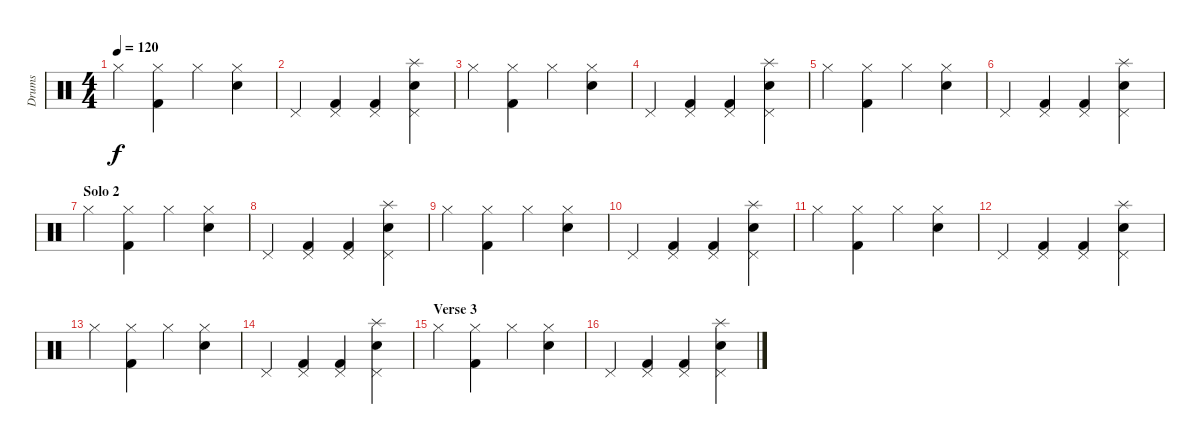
\track ("Drums" "Drums") {instrument percussion}
\staff {score}
\articulation defaults
\ts (4 4)
\tempo 120
\clef neutral
\ks c "Hi-Hat (closed)".4{dy f}
("Hi-Hat (closed)" "Kick (hit) 2").4 "Hi-Hat (closed)".4 ("Hi-Hat (closed)" "Snare (hit) 2").4 |
"Pedal Hi-Hat (hit)".4 ("Pedal Hi-Hat (hit)" "Kick (hit) 2").4 ("Pedal Hi-Hat (hit)" "Kick (hit) 2").4 ("Pedal Hi-Hat (hit)" "Splash (hit)" "Snare (hit) 2").4 |
"Hi-Hat (closed)".4 ("Hi-Hat (closed)" "Kick (hit) 2").4 "Hi-Hat (closed)".4 ("Hi-Hat (closed)" "Snare (hit) 2").4 |
"Pedal Hi-Hat (hit)".4 ("Pedal Hi-Hat (hit)" "Kick (hit) 2").4 ("Pedal Hi-Hat (hit)" "Kick (hit) 2").4 ("Pedal Hi-Hat (hit)" "Splash (hit)" "Snare (hit) 2").4 |
"Hi-Hat (closed)".4 ("Hi-Hat (closed)" "Kick (hit) 2").4 "Hi-Hat (closed)".4 ("Hi-Hat (closed)" "Snare (hit) 2").4 |
"Pedal Hi-Hat (hit)".4 ("Pedal Hi-Hat (hit)" "Kick (hit) 2").4 ("Pedal Hi-Hat (hit)" "Kick (hit) 2").4 ("Pedal Hi-Hat (hit)" "Splash (hit)" "Snare (hit) 2").4 |
\section ("" "Solo 2")
"Hi-Hat (closed)".4 ("Hi-Hat (closed)" "Kick (hit) 2").4 "Hi-Hat (closed)".4 ("Hi-Hat (closed)" "Snare (hit) 2").4 |
"Pedal Hi-Hat (hit)".4 ("Pedal Hi-Hat (hit)" "Kick (hit) 2").4 ("Pedal Hi-Hat (hit)" "Kick (hit) 2").4 ("Pedal Hi-Hat (hit)" "Splash (hit)" "Snare (hit) 2").4 |
"Hi-Hat (closed)".4 ("Hi-Hat (closed)" "Kick (hit) 2").4 "Hi-Hat (closed)".4 ("Hi-Hat (closed)" "Snare (hit) 2").4 |
"Pedal Hi-Hat (hit)".4 ("Pedal Hi-Hat (hit)" "Kick (hit) 2").4 ("Pedal Hi-Hat (hit)" "Kick (hit) 2").4 ("Pedal Hi-Hat (hit)" "Splash (hit)" "Snare (hit) 2").4 |
"Hi-Hat (closed)".4 ("Hi-Hat (closed)" "Kick (hit) 2").4 "Hi-Hat (closed)".4 ("Hi-Hat (closed)" "Snare (hit) 2").4 |
"Pedal Hi-Hat (hit)".4 ("Pedal Hi-Hat (hit)" "Kick (hit) 2").4 ("Pedal Hi-Hat (hit)" "Kick (hit) 2").4 ("Pedal Hi-Hat (hit)" "Splash (hit)" "Snare (hit) 2").4 |
"Hi-Hat (closed)".4 ("Hi-Hat (closed)" "Kick (hit) 2").4 "Hi-Hat (closed)".4 ("Hi-Hat (closed)" "Snare (hit) 2").4 |
"Pedal Hi-Hat (hit)".4 ("Pedal Hi-Hat (hit)" "Kick (hit) 2").4 ("Pedal Hi-Hat (hit)" "Kick (hit) 2").4 ("Pedal Hi-Hat (hit)" "Splash (hit)" "Snare (hit) 2").4 |
\section ("" "Verse 3")
"Hi-Hat (closed)".4 ("Hi-Hat (closed)" "Kick (hit) 2").4 "Hi-Hat (closed)".4 ("Hi-Hat (closed)" "Snare (hit) 2").4 |
"Pedal Hi-Hat (hit)".4 ("Pedal Hi-Hat (hit)" "Kick (hit) 2").4 ("Pedal Hi-Hat (hit)" "Kick (hit) 2").4 ("Pedal Hi-Hat (hit)" "Splash (hit)" "Snare (hit) 2").4
